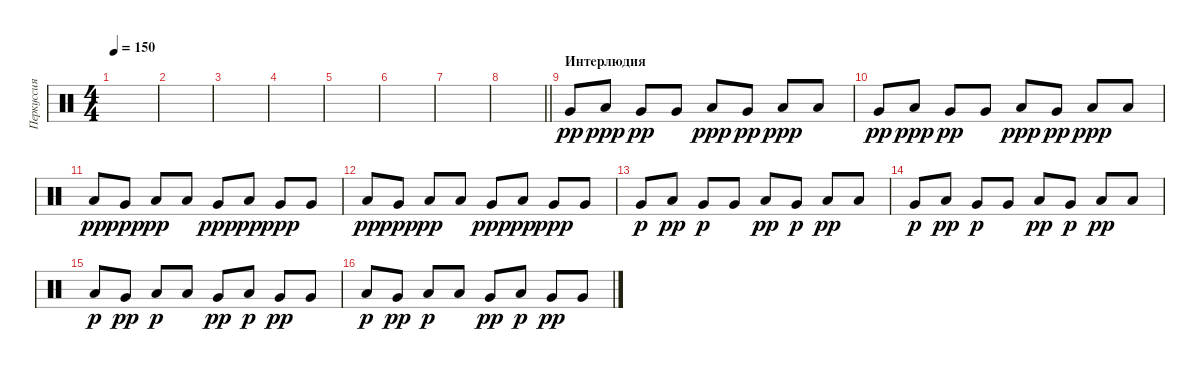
\track ("Перкуссия" "Перкуссия") {instrument percussion}
\staff {score}
\articulation defaults
\ts (4 4)
\tempo 150
\clef neutral
\ks c
|
|
|
|
|
|
|
\barLineRight lightlight
|
\section ("" "Интерлюдия")
"Very Low Tom (hit)".8{dy pp} "Low Tom (hit)".8{dy ppp} "Very Low Tom (hit)".8{dy pp} "Very Low Tom (hit)".8 "Low Tom (hit)".8{dy ppp} "Very Low Tom (hit)".8{dy pp} "Low Tom (hit)".8{dy ppp} "Low Tom (hit)".8 |
"Very Low Tom (hit)".8{dy pp} "Low Tom (hit)".8{dy ppp} "Very Low Tom (hit)".8{dy pp} "Very Low Tom (hit)".8 "Low Tom (hit)".8{dy ppp} "Very Low Tom (hit)".8{dy pp} "Low Tom (hit)".8{dy ppp} "Low Tom (hit)".8 |
"Low Floor Tom (hit)".8{dy pp} "Very Low Tom (hit)".8{dy ppp} "Low Floor Tom (hit)".8{dy pp} "Low Floor Tom (hit)".8 "Very Low Tom (hit)".8{dy ppp} "Low Floor Tom (hit)".8{dy pp} "Very Low Tom (hit)".8{dy ppp} "Very Low Tom (hit)".8 |
"Low Floor Tom (hit)".8{dy pp} "Very Low Tom (hit)".8{dy ppp} "Low Floor Tom (hit)".8{dy pp} "Low Floor Tom (hit)".8 "Very Low Tom (hit)".8{dy ppp} "Low Floor Tom (hit)".8{dy pp} "Very Low Tom (hit)".8{dy ppp} "Very Low Tom (hit)".8 |
"Very Low Tom (hit)".8{dy p} "Low Tom (hit)".8{dy pp} "Very Low Tom (hit)".8{dy p} "Very Low Tom (hit)".8 "Low Tom (hit)".8{dy pp} "Very Low Tom (hit)".8{dy p} "Low Tom (hit)".8{dy pp} "Low Tom (hit)".8 |
"Very Low Tom (hit)".8{dy p} "Low Tom (hit)".8{dy pp} "Very Low Tom (hit)".8{dy p} "Very Low Tom (hit)".8 "Low Tom (hit)".8{dy pp} "Very Low Tom (hit)".8{dy p} "Low Tom (hit)".8{dy pp} "Low Tom (hit)".8 |
"Low Floor Tom (hit)".8{dy p} "Very Low Tom (hit)".8{dy pp} "Low Floor Tom (hit)".8{dy p} "Low Floor Tom (hit)".8 "Very Low Tom (hit)".8{dy pp} "Low Floor Tom (hit)".8{dy p} "Very Low Tom (hit)".8{dy pp} "Very Low Tom (hit)".8 |
"Low Floor Tom (hit)".8{dy p} "Very Low Tom (hit)".8{dy pp} "Low Floor Tom (hit)".8{dy p} "Low Floor Tom (hit)".8 "Very Low Tom (hit)".8{dy pp} "Low Floor Tom (hit)".8{dy p} "Very Low Tom (hit)".8{dy pp} "Very Low Tom (hit)".8
